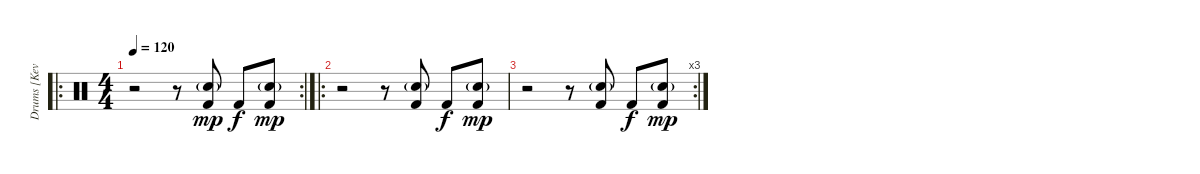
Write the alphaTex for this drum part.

\track ("Drums [Kevin Haskins]" "Drums [Kev") {instrument percussion}
\staff {score}
\articulation defaults
\ro
\rc 2
\ts (4 4)
\tempo 120
\clef neutral
\ks c
r.2{dy mp} r.8 ("Snare (hit) 2"{g} "Kick (hit) 2").8 "Kick (hit) 2".8{dy f} ("Snare (hit) 2"{g} "Kick (hit) 2").8{dy mp} |
\ro
r.2 r.8 ("Snare (hit) 2"{g} "Kick (hit) 2").8 "Kick (hit) 2".8{dy f} ("Snare (hit) 2"{g} "Kick (hit) 2").8{dy mp} |
\rc 3
r.2 r.8 ("Snare (hit) 2"{g} "Kick (hit) 2").8 "Kick (hit) 2".8{dy f} ("Snare (hit) 2"{g} "Kick (hit) 2").8{dy mp}
